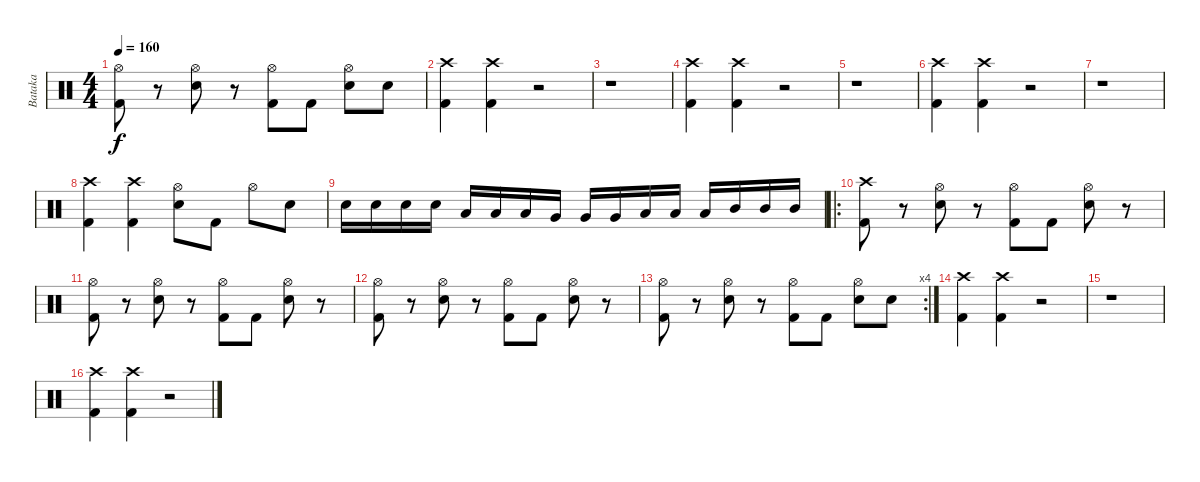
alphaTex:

\track ("Bataka" "Bataka") {instrument percussion}
\staff {score}
\articulation defaults
\ts (4 4)
\tempo 160
\clef neutral
\ks c
("Hi-Hat (open)" "Kick (hit) 2").8{dy f} r.8 ("Hi-Hat (open)" "Snare (hit) 2").8 r.8 ("Hi-Hat (open)" "Kick (hit) 2").8 "Kick (hit) 2".8 ("Hi-Hat (open)" "Snare (hit) 2").8 "Snare (hit) 2".8 |
("Crash high (hit)" "Kick (hit) 2").4 ("Crash high (hit)" "Kick (hit) 2").4 r.2 |
r.1 |
("Crash high (hit)" "Kick (hit) 2").4 ("Crash high (hit)" "Kick (hit) 2").4 r.2 |
r.1 |
("Crash high (hit)" "Kick (hit) 2").4 ("Crash high (hit)" "Kick (hit) 2").4 r.2 |
r.1 |
("Crash high (hit)" "Kick (hit) 2").4 ("Crash high (hit)" "Kick (hit) 2").4 ("Hi-Hat (open)" "Snare (hit) 2").8 "Kick (hit) 2".8 "Hi-Hat (open)".8 "Snare (hit) 2".8 |
"Snare (hit) 2".16 "Snare (hit) 2".16 "Snare (hit) 2".16 "Snare (hit) 2".16 "Low Floor Tom (hit)".16 "Low Floor Tom (hit)".16 "Low Floor Tom (hit)".16 "Very Low Tom (hit)".16 "Very Low Tom (hit)".16 "Very Low Tom (hit)".16 "Low Tom (hit)".16 "Low Tom (hit)".16 "Low Tom (hit)".16 "Mid Tom (hit)".16 "Mid Tom (hit)".16 "Mid Tom (hit)".16 |
\ro
("Crash high (hit)" "Kick (hit) 2").8 r.8 ("Hi-Hat (open)" "Snare (hit) 2").8 r.8 ("Hi-Hat (open)" "Kick (hit) 2").8 "Kick (hit) 2".8 ("Hi-Hat (open)" "Snare (hit) 2").8 r.8 |
("Hi-Hat (open)" "Kick (hit) 2").8 r.8 ("Hi-Hat (open)" "Snare (hit) 2").8 r.8 ("Hi-Hat (open)" "Kick (hit) 2").8 "Kick (hit) 2".8 ("Hi-Hat (open)" "Snare (hit) 2").8 r.8 |
("Hi-Hat (open)" "Kick (hit) 2").8 r.8 ("Hi-Hat (open)" "Snare (hit) 2").8 r.8 ("Hi-Hat (open)" "Kick (hit) 2").8 "Kick (hit) 2".8 ("Hi-Hat (open)" "Snare (hit) 2").8 r.8 |
\rc 4
("Hi-Hat (open)" "Kick (hit) 2").8 r.8 ("Hi-Hat (open)" "Snare (hit) 2").8 r.8 ("Hi-Hat (open)" "Kick (hit) 2").8 "Kick (hit) 2".8 ("Hi-Hat (open)" "Snare (hit) 2").8 "Snare (hit) 2".8 |
("Crash high (hit)" "Kick (hit) 2").4 ("Crash high (hit)" "Kick (hit) 2").4 r.2 |
r.1 |
("Crash high (hit)" "Kick (hit) 2").4 ("Crash high (hit)" "Kick (hit) 2").4 r.2
